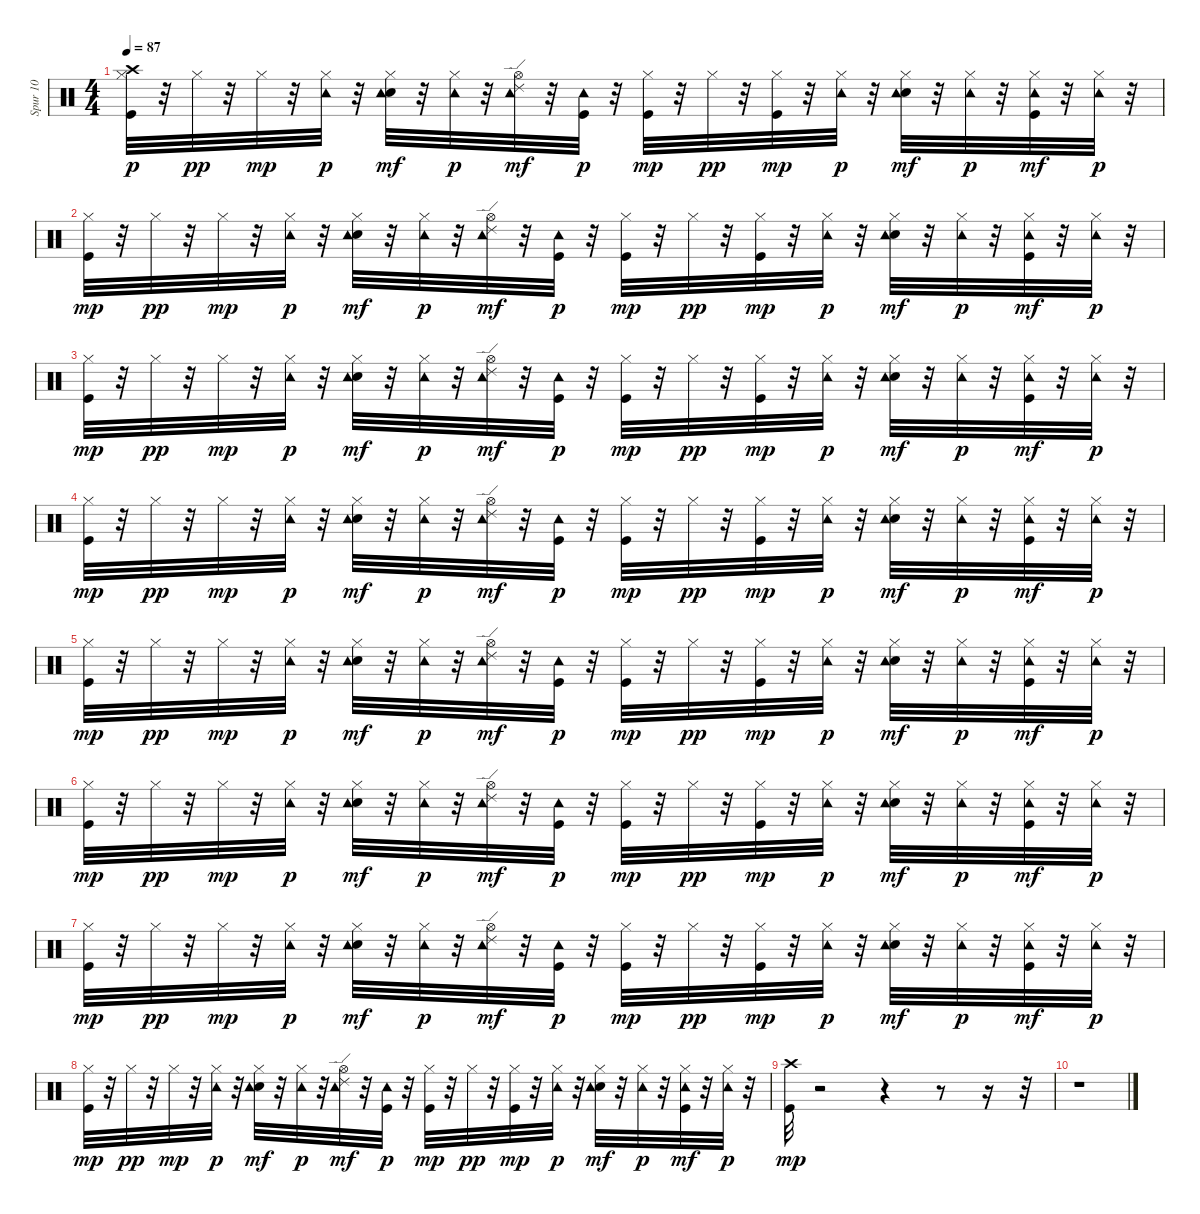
\track ("Spur 10" "Spur 10") {instrument percussion}
\staff {score}
\articulation defaults
\ts (4 4)
\tempo 87
\clef neutral
\ks c
("Kick (hit)" "Hi-Hat (closed)" "Crash high (hit)").32{dy p} r.32 "Hi-Hat (closed)".32{dy pp} r.32 "Hi-Hat (closed)".32{dy mp} r.32 ("Hi-Hat (closed)" "Tambourine (hit)").32{dy p} r.32 ("Electric Snare (hit)" "Hi-Hat (closed)" "Tambourine (hit)").32{dy mf} r.32 ("Hi-Hat (closed)" "Tambourine (hit)").32{dy p} r.32 ("Hi-Hat (open)" "Tambourine (hit)" "Ride (edge) 2").32{dy mf} r.32 ("Kick (hit)" "Tambourine (hit)").32{dy p} r.32 ("Kick (hit)" "Hi-Hat (closed)").32{dy mp} r.32 "Hi-Hat (closed)".32{dy pp} r.32 ("Kick (hit)" "Hi-Hat (closed)").32{dy mp} r.32 ("Hi-Hat (closed)" "Tambourine (hit)").32{dy p} r.32 ("Electric Snare (hit)" "Hi-Hat (closed)" "Tambourine (hit)").32{dy mf} r.32 ("Hi-Hat (closed)" "Tambourine (hit)").32{dy p} r.32 ("Kick (hit)" "Hi-Hat (closed)" "Tambourine (hit)").32{dy mf} r.32 ("Hi-Hat (closed)" "Tambourine (hit)").32{dy p} r.32 |
("Kick (hit)" "Hi-Hat (closed)").32{dy mp} r.32 "Hi-Hat (closed)".32{dy pp} r.32 "Hi-Hat (closed)".32{dy mp} r.32 ("Hi-Hat (closed)" "Tambourine (hit)").32{dy p} r.32 ("Electric Snare (hit)" "Hi-Hat (closed)" "Tambourine (hit)").32{dy mf} r.32 ("Hi-Hat (closed)" "Tambourine (hit)").32{dy p} r.32 ("Hi-Hat (open)" "Tambourine (hit)" "Ride (edge) 2").32{dy mf} r.32 ("Kick (hit)" "Tambourine (hit)").32{dy p} r.32 ("Kick (hit)" "Hi-Hat (closed)").32{dy mp} r.32 "Hi-Hat (closed)".32{dy pp} r.32 ("Kick (hit)" "Hi-Hat (closed)").32{dy mp} r.32 ("Hi-Hat (closed)" "Tambourine (hit)").32{dy p} r.32 ("Electric Snare (hit)" "Hi-Hat (closed)" "Tambourine (hit)").32{dy mf} r.32 ("Hi-Hat (closed)" "Tambourine (hit)").32{dy p} r.32 ("Kick (hit)" "Hi-Hat (closed)" "Tambourine (hit)").32{dy mf} r.32 ("Hi-Hat (closed)" "Tambourine (hit)").32{dy p} r.32 |
("Kick (hit)" "Hi-Hat (closed)").32{dy mp} r.32 "Hi-Hat (closed)".32{dy pp} r.32 "Hi-Hat (closed)".32{dy mp} r.32 ("Hi-Hat (closed)" "Tambourine (hit)").32{dy p} r.32 ("Electric Snare (hit)" "Hi-Hat (closed)" "Tambourine (hit)").32{dy mf} r.32 ("Hi-Hat (closed)" "Tambourine (hit)").32{dy p} r.32 ("Hi-Hat (open)" "Tambourine (hit)" "Ride (edge) 2").32{dy mf} r.32 ("Kick (hit)" "Tambourine (hit)").32{dy p} r.32 ("Kick (hit)" "Hi-Hat (closed)").32{dy mp} r.32 "Hi-Hat (closed)".32{dy pp} r.32 ("Kick (hit)" "Hi-Hat (closed)").32{dy mp} r.32 ("Hi-Hat (closed)" "Tambourine (hit)").32{dy p} r.32 ("Electric Snare (hit)" "Hi-Hat (closed)" "Tambourine (hit)").32{dy mf} r.32 ("Hi-Hat (closed)" "Tambourine (hit)").32{dy p} r.32 ("Kick (hit)" "Hi-Hat (closed)" "Tambourine (hit)").32{dy mf} r.32 ("Hi-Hat (closed)" "Tambourine (hit)").32{dy p} r.32 |
("Kick (hit)" "Hi-Hat (closed)").32{dy mp} r.32 "Hi-Hat (closed)".32{dy pp} r.32 "Hi-Hat (closed)".32{dy mp} r.32 ("Hi-Hat (closed)" "Tambourine (hit)").32{dy p} r.32 ("Electric Snare (hit)" "Hi-Hat (closed)" "Tambourine (hit)").32{dy mf} r.32 ("Hi-Hat (closed)" "Tambourine (hit)").32{dy p} r.32 ("Hi-Hat (open)" "Tambourine (hit)" "Ride (edge) 2").32{dy mf} r.32 ("Kick (hit)" "Tambourine (hit)").32{dy p} r.32 ("Kick (hit)" "Hi-Hat (closed)").32{dy mp} r.32 "Hi-Hat (closed)".32{dy pp} r.32 ("Kick (hit)" "Hi-Hat (closed)").32{dy mp} r.32 ("Hi-Hat (closed)" "Tambourine (hit)").32{dy p} r.32 ("Electric Snare (hit)" "Hi-Hat (closed)" "Tambourine (hit)").32{dy mf} r.32 ("Hi-Hat (closed)" "Tambourine (hit)").32{dy p} r.32 ("Kick (hit)" "Hi-Hat (closed)" "Tambourine (hit)").32{dy mf} r.32 ("Hi-Hat (closed)" "Tambourine (hit)").32{dy p} r.32 |
("Kick (hit)" "Hi-Hat (closed)").32{dy mp} r.32 "Hi-Hat (closed)".32{dy pp} r.32 "Hi-Hat (closed)".32{dy mp} r.32 ("Hi-Hat (closed)" "Tambourine (hit)").32{dy p} r.32 ("Electric Snare (hit)" "Hi-Hat (closed)" "Tambourine (hit)").32{dy mf} r.32 ("Hi-Hat (closed)" "Tambourine (hit)").32{dy p} r.32 ("Hi-Hat (open)" "Tambourine (hit)" "Ride (edge) 2").32{dy mf} r.32 ("Kick (hit)" "Tambourine (hit)").32{dy p} r.32 ("Kick (hit)" "Hi-Hat (closed)").32{dy mp} r.32 "Hi-Hat (closed)".32{dy pp} r.32 ("Kick (hit)" "Hi-Hat (closed)").32{dy mp} r.32 ("Hi-Hat (closed)" "Tambourine (hit)").32{dy p} r.32 ("Electric Snare (hit)" "Hi-Hat (closed)" "Tambourine (hit)").32{dy mf} r.32 ("Hi-Hat (closed)" "Tambourine (hit)").32{dy p} r.32 ("Kick (hit)" "Hi-Hat (closed)" "Tambourine (hit)").32{dy mf} r.32 ("Hi-Hat (closed)" "Tambourine (hit)").32{dy p} r.32 |
("Kick (hit)" "Hi-Hat (closed)").32{dy mp} r.32 "Hi-Hat (closed)".32{dy pp} r.32 "Hi-Hat (closed)".32{dy mp} r.32 ("Hi-Hat (closed)" "Tambourine (hit)").32{dy p} r.32 ("Electric Snare (hit)" "Hi-Hat (closed)" "Tambourine (hit)").32{dy mf} r.32 ("Hi-Hat (closed)" "Tambourine (hit)").32{dy p} r.32 ("Hi-Hat (open)" "Tambourine (hit)" "Ride (edge) 2").32{dy mf} r.32 ("Kick (hit)" "Tambourine (hit)").32{dy p} r.32 ("Kick (hit)" "Hi-Hat (closed)").32{dy mp} r.32 "Hi-Hat (closed)".32{dy pp} r.32 ("Kick (hit)" "Hi-Hat (closed)").32{dy mp} r.32 ("Hi-Hat (closed)" "Tambourine (hit)").32{dy p} r.32 ("Electric Snare (hit)" "Hi-Hat (closed)" "Tambourine (hit)").32{dy mf} r.32 ("Hi-Hat (closed)" "Tambourine (hit)").32{dy p} r.32 ("Kick (hit)" "Hi-Hat (closed)" "Tambourine (hit)").32{dy mf} r.32 ("Hi-Hat (closed)" "Tambourine (hit)").32{dy p} r.32 |
("Kick (hit)" "Hi-Hat (closed)").32{dy mp} r.32 "Hi-Hat (closed)".32{dy pp} r.32 "Hi-Hat (closed)".32{dy mp} r.32 ("Hi-Hat (closed)" "Tambourine (hit)").32{dy p} r.32 ("Electric Snare (hit)" "Hi-Hat (closed)" "Tambourine (hit)").32{dy mf} r.32 ("Hi-Hat (closed)" "Tambourine (hit)").32{dy p} r.32 ("Hi-Hat (open)" "Tambourine (hit)" "Ride (edge) 2").32{dy mf} r.32 ("Kick (hit)" "Tambourine (hit)").32{dy p} r.32 ("Kick (hit)" "Hi-Hat (closed)").32{dy mp} r.32 "Hi-Hat (closed)".32{dy pp} r.32 ("Kick (hit)" "Hi-Hat (closed)").32{dy mp} r.32 ("Hi-Hat (closed)" "Tambourine (hit)").32{dy p} r.32 ("Electric Snare (hit)" "Hi-Hat (closed)" "Tambourine (hit)").32{dy mf} r.32 ("Hi-Hat (closed)" "Tambourine (hit)").32{dy p} r.32 ("Kick (hit)" "Hi-Hat (closed)" "Tambourine (hit)").32{dy mf} r.32 ("Hi-Hat (closed)" "Tambourine (hit)").32{dy p} r.32 |
("Kick (hit)" "Hi-Hat (closed)").32{dy mp} r.32 "Hi-Hat (closed)".32{dy pp} r.32 "Hi-Hat (closed)".32{dy mp} r.32 ("Hi-Hat (closed)" "Tambourine (hit)").32{dy p} r.32 ("Electric Snare (hit)" "Hi-Hat (closed)" "Tambourine (hit)").32{dy mf} r.32 ("Hi-Hat (closed)" "Tambourine (hit)").32{dy p} r.32 ("Hi-Hat (open)" "Tambourine (hit)" "Ride (edge) 2").32{dy mf} r.32 ("Kick (hit)" "Tambourine (hit)").32{dy p} r.32 ("Kick (hit)" "Hi-Hat (closed)").32{dy mp} r.32 "Hi-Hat (closed)".32{dy pp} r.32 ("Kick (hit)" "Hi-Hat (closed)").32{dy mp} r.32 ("Hi-Hat (closed)" "Tambourine (hit)").32{dy p} r.32 ("Electric Snare (hit)" "Hi-Hat (closed)" "Tambourine (hit)").32{dy mf} r.32 ("Hi-Hat (closed)" "Tambourine (hit)").32{dy p} r.32 ("Kick (hit)" "Hi-Hat (closed)" "Tambourine (hit)").32{dy mf} r.32 ("Hi-Hat (closed)" "Tambourine (hit)").32{dy p} r.32 |
("Kick (hit)" "Crash high (hit)").32{dy mp} r.2 r.4 r.8 r.16 r.32 |
r.1
